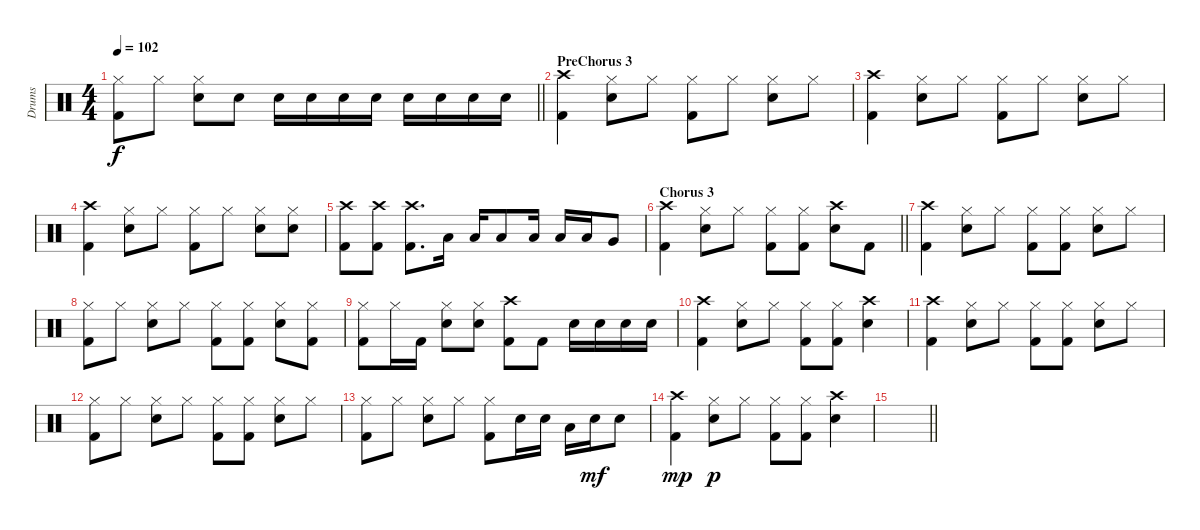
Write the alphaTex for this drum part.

\track ("Drums" "Drums") {instrument percussion}
\staff {score}
\articulation defaults
\ts (4 4)
\tempo 102
\clef neutral
\barLineRight lightlight
\ks c
("Hi-Hat (closed)" "Kick (hit) 2").8{dy f} "Hi-Hat (closed)".8 ("Hi-Hat (closed)" "Snare (hit) 2").8 "Snare (hit) 2".8 "Snare (hit) 2".16 "Snare (hit) 2".16 "Snare (hit) 2".16 "Snare (hit) 2".16 "Snare (hit) 2".16 "Snare (hit) 2".16 "Snare (hit) 2".16 "Snare (hit) 2".16 |
\section ("" "PreChorus 3")
("Crash high (hit)" "Kick (hit) 2").4 ("Hi-Hat (closed)" "Snare (hit) 2").8 "Hi-Hat (closed)".8 ("Hi-Hat (closed)" "Kick (hit) 2").8 "Hi-Hat (closed)".8 ("Hi-Hat (closed)" "Snare (hit) 2").8 "Hi-Hat (closed)".8 |
("Crash high (hit)" "Kick (hit) 2").4 ("Hi-Hat (closed)" "Snare (hit) 2").8 "Hi-Hat (closed)".8 ("Hi-Hat (closed)" "Kick (hit) 2").8 "Hi-Hat (closed)".8 ("Hi-Hat (closed)" "Snare (hit) 2").8 "Hi-Hat (closed)".8 |
("Crash high (hit)" "Kick (hit) 2").4 ("Hi-Hat (closed)" "Snare (hit) 2").8 "Hi-Hat (closed)".8 ("Hi-Hat (closed)" "Kick (hit) 2").8 "Hi-Hat (closed)".8 ("Hi-Hat (closed)" "Snare (hit) 2").8 ("Hi-Hat (closed)" "Snare (hit) 2").8 |
("Crash high (hit)" "Kick (hit) 2").8 ("Crash high (hit)" "Kick (hit) 2").8 ("Crash high (hit)" "Kick (hit) 2").8{d} "Low Tom (hit)".16 "Low Tom (hit)".16 "Low Tom (hit)".8 "Low Tom (hit)".16 "Low Tom (hit)".16 "Low Tom (hit)".16 "Very Low Tom (hit)".8 |
\section ("" "Chorus 3")
\barLineRight lightlight
("Crash high (hit)" "Kick (hit) 2").4 ("Hi-Hat (closed)" "Snare (hit) 2").8 "Hi-Hat (closed)".8 ("Hi-Hat (closed)" "Kick (hit) 2").8 ("Hi-Hat (closed)" "Kick (hit) 2").8 ("Crash high (hit)" "Snare (hit) 2").8 "Kick (hit) 2".8 |
("Crash high (hit)" "Kick (hit) 2").4 ("Hi-Hat (closed)" "Snare (hit) 2").8 "Hi-Hat (closed)".8 ("Hi-Hat (closed)" "Kick (hit) 2").8 ("Hi-Hat (closed)" "Kick (hit) 2").8 ("Hi-Hat (closed)" "Snare (hit) 2").8 "Hi-Hat (closed)".8 |
("Hi-Hat (closed)" "Kick (hit) 2").8 "Hi-Hat (closed)".8 ("Hi-Hat (closed)" "Snare (hit) 2").8 "Hi-Hat (closed)".8 ("Hi-Hat (closed)" "Kick (hit) 2").8 ("Hi-Hat (closed)" "Kick (hit) 2").8 ("Hi-Hat (closed)" "Snare (hit) 2").8 ("Hi-Hat (closed)" "Kick (hit) 2").8 |
("Hi-Hat (closed)" "Kick (hit) 2").8 "Hi-Hat (closed)".16 "Kick (hit) 2".16 ("Hi-Hat (closed)" "Snare (hit) 2").8 ("Hi-Hat (closed)" "Snare (hit) 2").8 ("Crash high (hit)" "Kick (hit) 2").8 "Kick (hit) 2".8 "Snare (hit) 2".16 "Snare (hit) 2".16 "Snare (hit) 2".16 "Snare (hit) 2".16 |
("Crash high (hit)" "Kick (hit) 2").4 ("Hi-Hat (closed)" "Snare (hit) 2").8 "Hi-Hat (closed)".8 ("Hi-Hat (closed)" "Kick (hit) 2").8 ("Hi-Hat (closed)" "Kick (hit) 2").8 ("Crash high (hit)" "Snare (hit) 2").4 |
("Crash high (hit)" "Kick (hit) 2").4 ("Hi-Hat (closed)" "Snare (hit) 2").8 "Hi-Hat (closed)".8 ("Hi-Hat (closed)" "Kick (hit) 2").8 ("Hi-Hat (closed)" "Kick (hit) 2").8 ("Hi-Hat (closed)" "Snare (hit) 2").8 "Hi-Hat (closed)".8 |
("Hi-Hat (closed)" "Kick (hit) 2").8 "Hi-Hat (closed)".8 ("Hi-Hat (closed)" "Snare (hit) 2").8 "Hi-Hat (closed)".8 ("Hi-Hat (closed)" "Kick (hit) 2").8 ("Hi-Hat (closed)" "Kick (hit) 2").8 ("Hi-Hat (closed)" "Snare (hit) 2").8 "Hi-Hat (closed)".8 |
("Hi-Hat (closed)" "Kick (hit) 2").8 "Hi-Hat (closed)".8 ("Hi-Hat (closed)" "Snare (hit) 2").8 "Hi-Hat (closed)".8 ("Hi-Hat (closed)" "Kick (hit) 2").8 "Snare (hit) 2".16 "Snare (hit) 2".16 "Low Tom (hit)".16 "Snare (hit) 2".16{dy mf} "Snare (hit) 2".8 |
("Crash high (hit)" "Kick (hit) 2").4{dy mp} ("Hi-Hat (closed)" "Snare (hit) 2").8{dy p} "Hi-Hat (closed)".8 ("Hi-Hat (closed)" "Kick (hit) 2").8 ("Hi-Hat (closed)" "Kick (hit) 2").8 ("Crash high (hit)" "Snare (hit) 2").4 |
\barLineRight lightlight
